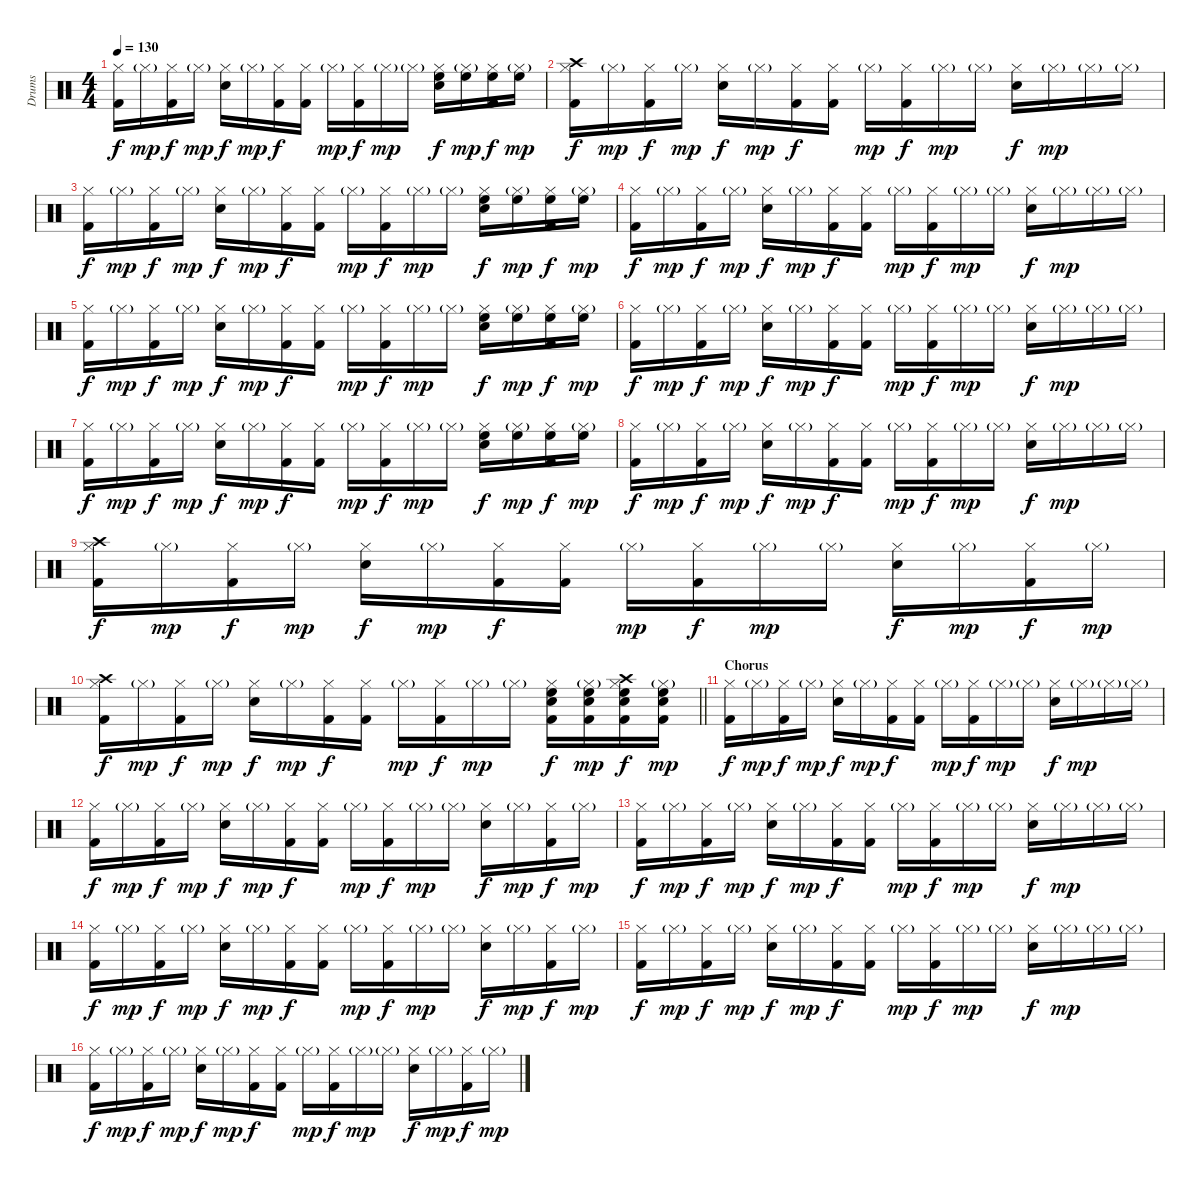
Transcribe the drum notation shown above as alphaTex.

\track ("Drums" "Drums") {instrument percussion}
\staff {score}
\articulation defaults
\ts (4 4)
\tempo 130
\clef neutral
\ks c
("Hi-Hat (closed)" "Kick (hit) 2").16{dy f} "Hi-Hat (closed)"{g}.16{dy mp} ("Hi-Hat (closed)" "Kick (hit) 2").16{dy f} "Hi-Hat (closed)"{g}.16{dy mp} ("Hi-Hat (closed)" "Snare (hit) 2").16{dy f} "Hi-Hat (closed)"{g}.16{dy mp} ("Hi-Hat (closed)" "Kick (hit) 2").16{dy f} ("Hi-Hat (closed)" "Kick (hit) 2").16 "Hi-Hat (closed)"{g}.16{dy mp} ("Hi-Hat (closed)" "Kick (hit) 2").16{dy f} "Hi-Hat (closed)"{g}.16{dy mp} "Hi-Hat (closed)"{g}.16 ("Hi-Hat (closed)" "Snare (hit) 2" "High Floor Tom (hit)").16{dy f} ("Hi-Hat (closed)"{g} "High Floor Tom (hit)").16{dy mp} ("Hi-Hat (closed)" "Kick (hit) 2" "High Floor Tom (hit)").16{dy f} ("Hi-Hat (closed)"{g} "High Floor Tom (hit)").16{dy mp} |
("Hi-Hat (closed)" "Kick (hit) 2" "Crash high (hit)").16{dy f} "Hi-Hat (closed)"{g}.16{dy mp} ("Hi-Hat (closed)" "Kick (hit) 2").16{dy f} "Hi-Hat (closed)"{g}.16{dy mp} ("Hi-Hat (closed)" "Snare (hit) 2").16{dy f} "Hi-Hat (closed)"{g}.16{dy mp} ("Hi-Hat (closed)" "Kick (hit) 2").16{dy f} ("Hi-Hat (closed)" "Kick (hit) 2").16 "Hi-Hat (closed)"{g}.16{dy mp} ("Hi-Hat (closed)" "Kick (hit) 2").16{dy f} "Hi-Hat (closed)"{g}.16{dy mp} "Hi-Hat (closed)"{g}.16 ("Hi-Hat (closed)" "Snare (hit) 2").16{dy f} "Hi-Hat (closed)"{g}.16{dy mp} "Hi-Hat (closed)"{g}.16 "Hi-Hat (closed)"{g}.16 |
("Hi-Hat (closed)" "Kick (hit) 2").16{dy f} "Hi-Hat (closed)"{g}.16{dy mp} ("Hi-Hat (closed)" "Kick (hit) 2").16{dy f} "Hi-Hat (closed)"{g}.16{dy mp} ("Hi-Hat (closed)" "Snare (hit) 2").16{dy f} "Hi-Hat (closed)"{g}.16{dy mp} ("Hi-Hat (closed)" "Kick (hit) 2").16{dy f} ("Hi-Hat (closed)" "Kick (hit) 2").16 "Hi-Hat (closed)"{g}.16{dy mp} ("Hi-Hat (closed)" "Kick (hit) 2").16{dy f} "Hi-Hat (closed)"{g}.16{dy mp} "Hi-Hat (closed)"{g}.16 ("Hi-Hat (closed)" "Snare (hit) 2" "High Floor Tom (hit)").16{dy f} ("Hi-Hat (closed)"{g} "High Floor Tom (hit)").16{dy mp} ("Hi-Hat (closed)" "Kick (hit) 2" "High Floor Tom (hit)").16{dy f} ("Hi-Hat (closed)"{g} "High Floor Tom (hit)").16{dy mp} |
("Hi-Hat (closed)" "Kick (hit) 2").16{dy f} "Hi-Hat (closed)"{g}.16{dy mp} ("Hi-Hat (closed)" "Kick (hit) 2").16{dy f} "Hi-Hat (closed)"{g}.16{dy mp} ("Hi-Hat (closed)" "Snare (hit) 2").16{dy f} "Hi-Hat (closed)"{g}.16{dy mp} ("Hi-Hat (closed)" "Kick (hit) 2").16{dy f} ("Hi-Hat (closed)" "Kick (hit) 2").16 "Hi-Hat (closed)"{g}.16{dy mp} ("Hi-Hat (closed)" "Kick (hit) 2").16{dy f} "Hi-Hat (closed)"{g}.16{dy mp} "Hi-Hat (closed)"{g}.16 ("Hi-Hat (closed)" "Snare (hit) 2").16{dy f} "Hi-Hat (closed)"{g}.16{dy mp} "Hi-Hat (closed)"{g}.16 "Hi-Hat (closed)"{g}.16 |
("Hi-Hat (closed)" "Kick (hit) 2").16{dy f} "Hi-Hat (closed)"{g}.16{dy mp} ("Hi-Hat (closed)" "Kick (hit) 2").16{dy f} "Hi-Hat (closed)"{g}.16{dy mp} ("Hi-Hat (closed)" "Snare (hit) 2").16{dy f} "Hi-Hat (closed)"{g}.16{dy mp} ("Hi-Hat (closed)" "Kick (hit) 2").16{dy f} ("Hi-Hat (closed)" "Kick (hit) 2").16 "Hi-Hat (closed)"{g}.16{dy mp} ("Hi-Hat (closed)" "Kick (hit) 2").16{dy f} "Hi-Hat (closed)"{g}.16{dy mp} "Hi-Hat (closed)"{g}.16 ("Hi-Hat (closed)" "Snare (hit) 2" "High Floor Tom (hit)").16{dy f} ("Hi-Hat (closed)"{g} "High Floor Tom (hit)").16{dy mp} ("Hi-Hat (closed)" "Kick (hit) 2" "High Floor Tom (hit)").16{dy f} ("Hi-Hat (closed)"{g} "High Floor Tom (hit)").16{dy mp} |
("Hi-Hat (closed)" "Kick (hit) 2").16{dy f} "Hi-Hat (closed)"{g}.16{dy mp} ("Hi-Hat (closed)" "Kick (hit) 2").16{dy f} "Hi-Hat (closed)"{g}.16{dy mp} ("Hi-Hat (closed)" "Snare (hit) 2").16{dy f} "Hi-Hat (closed)"{g}.16{dy mp} ("Hi-Hat (closed)" "Kick (hit) 2").16{dy f} ("Hi-Hat (closed)" "Kick (hit) 2").16 "Hi-Hat (closed)"{g}.16{dy mp} ("Hi-Hat (closed)" "Kick (hit) 2").16{dy f} "Hi-Hat (closed)"{g}.16{dy mp} "Hi-Hat (closed)"{g}.16 ("Hi-Hat (closed)" "Snare (hit) 2").16{dy f} "Hi-Hat (closed)"{g}.16{dy mp} "Hi-Hat (closed)"{g}.16 "Hi-Hat (closed)"{g}.16 |
("Hi-Hat (closed)" "Kick (hit) 2").16{dy f} "Hi-Hat (closed)"{g}.16{dy mp} ("Hi-Hat (closed)" "Kick (hit) 2").16{dy f} "Hi-Hat (closed)"{g}.16{dy mp} ("Hi-Hat (closed)" "Snare (hit) 2").16{dy f} "Hi-Hat (closed)"{g}.16{dy mp} ("Hi-Hat (closed)" "Kick (hit) 2").16{dy f} ("Hi-Hat (closed)" "Kick (hit) 2").16 "Hi-Hat (closed)"{g}.16{dy mp} ("Hi-Hat (closed)" "Kick (hit) 2").16{dy f} "Hi-Hat (closed)"{g}.16{dy mp} "Hi-Hat (closed)"{g}.16 ("Hi-Hat (closed)" "Snare (hit) 2" "High Floor Tom (hit)").16{dy f} ("Hi-Hat (closed)"{g} "High Floor Tom (hit)").16{dy mp} ("Hi-Hat (closed)" "Kick (hit) 2" "High Floor Tom (hit)").16{dy f} ("Hi-Hat (closed)"{g} "High Floor Tom (hit)").16{dy mp} |
("Hi-Hat (closed)" "Kick (hit) 2").16{dy f} "Hi-Hat (closed)"{g}.16{dy mp} ("Hi-Hat (closed)" "Kick (hit) 2").16{dy f} "Hi-Hat (closed)"{g}.16{dy mp} ("Hi-Hat (closed)" "Snare (hit) 2").16{dy f} "Hi-Hat (closed)"{g}.16{dy mp} ("Hi-Hat (closed)" "Kick (hit) 2").16{dy f} ("Hi-Hat (closed)" "Kick (hit) 2").16 "Hi-Hat (closed)"{g}.16{dy mp} ("Hi-Hat (closed)" "Kick (hit) 2").16{dy f} "Hi-Hat (closed)"{g}.16{dy mp} "Hi-Hat (closed)"{g}.16 ("Hi-Hat (closed)" "Snare (hit) 2").16{dy f} "Hi-Hat (closed)"{g}.16{dy mp} "Hi-Hat (closed)"{g}.16 "Hi-Hat (closed)"{g}.16 |
("Hi-Hat (closed)" "Kick (hit) 2" "Crash high (hit)").16{dy f} "Hi-Hat (closed)"{g}.16{dy mp} ("Hi-Hat (closed)" "Kick (hit) 2").16{dy f} "Hi-Hat (closed)"{g}.16{dy mp} ("Hi-Hat (closed)" "Snare (hit) 2").16{dy f} "Hi-Hat (closed)"{g}.16{dy mp} ("Hi-Hat (closed)" "Kick (hit) 2").16{dy f} ("Hi-Hat (closed)" "Kick (hit) 2").16 "Hi-Hat (closed)"{g}.16{dy mp} ("Hi-Hat (closed)" "Kick (hit) 2").16{dy f} "Hi-Hat (closed)"{g}.16{dy mp} "Hi-Hat (closed)"{g}.16 ("Hi-Hat (closed)" "Snare (hit) 2").16{dy f} "Hi-Hat (closed)"{g}.16{dy mp} ("Hi-Hat (closed)" "Kick (hit) 2").16{dy f} "Hi-Hat (closed)"{g}.16{dy mp} |
\barLineRight lightlight
("Hi-Hat (closed)" "Kick (hit) 2" "Crash high (hit)").16{dy f} "Hi-Hat (closed)"{g}.16{dy mp} ("Hi-Hat (closed)" "Kick (hit) 2").16{dy f} "Hi-Hat (closed)"{g}.16{dy mp} ("Hi-Hat (closed)" "Snare (hit) 2").16{dy f} "Hi-Hat (closed)"{g}.16{dy mp} ("Hi-Hat (closed)" "Kick (hit) 2").16{dy f} ("Hi-Hat (closed)" "Kick (hit) 2").16 "Hi-Hat (closed)"{g}.16{dy mp} ("Hi-Hat (closed)" "Kick (hit) 2").16{dy f} "Hi-Hat (closed)"{g}.16{dy mp} "Hi-Hat (closed)"{g}.16 ("Hi-Hat (closed)" "Snare (hit) 2" "High Floor Tom (hit)" "Kick (hit) 2").16{dy f} ("Hi-Hat (closed)"{g} "Snare (hit) 2" "High Floor Tom (hit)" "Kick (hit) 2").16{dy mp} ("Hi-Hat (closed)" "Snare (hit) 2" "High Floor Tom (hit)" "Kick (hit) 2" "Crash high (hit)").16{dy f} ("Hi-Hat (closed)"{g} "Snare (hit) 2" "High Floor Tom (hit)" "Kick (hit) 2").16{dy mp} |
\section ("" "Chorus")
("Hi-Hat (closed)" "Kick (hit) 2").16{dy f} "Hi-Hat (closed)"{g}.16{dy mp} ("Hi-Hat (closed)" "Kick (hit) 2").16{dy f} "Hi-Hat (closed)"{g}.16{dy mp} ("Hi-Hat (closed)" "Snare (hit) 2").16{dy f} "Hi-Hat (closed)"{g}.16{dy mp} ("Hi-Hat (closed)" "Kick (hit) 2").16{dy f} ("Hi-Hat (closed)" "Kick (hit) 2").16 "Hi-Hat (closed)"{g}.16{dy mp} ("Hi-Hat (closed)" "Kick (hit) 2").16{dy f} "Hi-Hat (closed)"{g}.16{dy mp} "Hi-Hat (closed)"{g}.16 ("Hi-Hat (closed)" "Snare (hit) 2").16{dy f} "Hi-Hat (closed)"{g}.16{dy mp} "Hi-Hat (closed)"{g}.16 "Hi-Hat (closed)"{g}.16 |
("Hi-Hat (closed)" "Kick (hit) 2").16{dy f} "Hi-Hat (closed)"{g}.16{dy mp} ("Hi-Hat (closed)" "Kick (hit) 2").16{dy f} "Hi-Hat (closed)"{g}.16{dy mp} ("Hi-Hat (closed)" "Snare (hit) 2").16{dy f} "Hi-Hat (closed)"{g}.16{dy mp} ("Hi-Hat (closed)" "Kick (hit) 2").16{dy f} ("Hi-Hat (closed)" "Kick (hit) 2").16 "Hi-Hat (closed)"{g}.16{dy mp} ("Hi-Hat (closed)" "Kick (hit) 2").16{dy f} "Hi-Hat (closed)"{g}.16{dy mp} "Hi-Hat (closed)"{g}.16 ("Hi-Hat (closed)" "Snare (hit) 2").16{dy f} "Hi-Hat (closed)"{g}.16{dy mp} ("Hi-Hat (closed)" "Kick (hit) 2").16{dy f} "Hi-Hat (closed)"{g}.16{dy mp} |
("Hi-Hat (closed)" "Kick (hit) 2").16{dy f} "Hi-Hat (closed)"{g}.16{dy mp} ("Hi-Hat (closed)" "Kick (hit) 2").16{dy f} "Hi-Hat (closed)"{g}.16{dy mp} ("Hi-Hat (closed)" "Snare (hit) 2").16{dy f} "Hi-Hat (closed)"{g}.16{dy mp} ("Hi-Hat (closed)" "Kick (hit) 2").16{dy f} ("Hi-Hat (closed)" "Kick (hit) 2").16 "Hi-Hat (closed)"{g}.16{dy mp} ("Hi-Hat (closed)" "Kick (hit) 2").16{dy f} "Hi-Hat (closed)"{g}.16{dy mp} "Hi-Hat (closed)"{g}.16 ("Hi-Hat (closed)" "Snare (hit) 2").16{dy f} "Hi-Hat (closed)"{g}.16{dy mp} "Hi-Hat (closed)"{g}.16 "Hi-Hat (closed)"{g}.16 |
("Hi-Hat (closed)" "Kick (hit) 2").16{dy f} "Hi-Hat (closed)"{g}.16{dy mp} ("Hi-Hat (closed)" "Kick (hit) 2").16{dy f} "Hi-Hat (closed)"{g}.16{dy mp} ("Hi-Hat (closed)" "Snare (hit) 2").16{dy f} "Hi-Hat (closed)"{g}.16{dy mp} ("Hi-Hat (closed)" "Kick (hit) 2").16{dy f} ("Hi-Hat (closed)" "Kick (hit) 2").16 "Hi-Hat (closed)"{g}.16{dy mp} ("Hi-Hat (closed)" "Kick (hit) 2").16{dy f} "Hi-Hat (closed)"{g}.16{dy mp} "Hi-Hat (closed)"{g}.16 ("Hi-Hat (closed)" "Snare (hit) 2").16{dy f} "Hi-Hat (closed)"{g}.16{dy mp} ("Hi-Hat (closed)" "Kick (hit) 2").16{dy f} "Hi-Hat (closed)"{g}.16{dy mp} |
("Hi-Hat (closed)" "Kick (hit) 2").16{dy f} "Hi-Hat (closed)"{g}.16{dy mp} ("Hi-Hat (closed)" "Kick (hit) 2").16{dy f} "Hi-Hat (closed)"{g}.16{dy mp} ("Hi-Hat (closed)" "Snare (hit) 2").16{dy f} "Hi-Hat (closed)"{g}.16{dy mp} ("Hi-Hat (closed)" "Kick (hit) 2").16{dy f} ("Hi-Hat (closed)" "Kick (hit) 2").16 "Hi-Hat (closed)"{g}.16{dy mp} ("Hi-Hat (closed)" "Kick (hit) 2").16{dy f} "Hi-Hat (closed)"{g}.16{dy mp} "Hi-Hat (closed)"{g}.16 ("Hi-Hat (closed)" "Snare (hit) 2").16{dy f} "Hi-Hat (closed)"{g}.16{dy mp} "Hi-Hat (closed)"{g}.16 "Hi-Hat (closed)"{g}.16 |
("Hi-Hat (closed)" "Kick (hit) 2").16{dy f} "Hi-Hat (closed)"{g}.16{dy mp} ("Hi-Hat (closed)" "Kick (hit) 2").16{dy f} "Hi-Hat (closed)"{g}.16{dy mp} ("Hi-Hat (closed)" "Snare (hit) 2").16{dy f} "Hi-Hat (closed)"{g}.16{dy mp} ("Hi-Hat (closed)" "Kick (hit) 2").16{dy f} ("Hi-Hat (closed)" "Kick (hit) 2").16 "Hi-Hat (closed)"{g}.16{dy mp} ("Hi-Hat (closed)" "Kick (hit) 2").16{dy f} "Hi-Hat (closed)"{g}.16{dy mp} "Hi-Hat (closed)"{g}.16 ("Hi-Hat (closed)" "Snare (hit) 2").16{dy f} "Hi-Hat (closed)"{g}.16{dy mp} ("Hi-Hat (closed)" "Kick (hit) 2").16{dy f} "Hi-Hat (closed)"{g}.16{dy mp}
